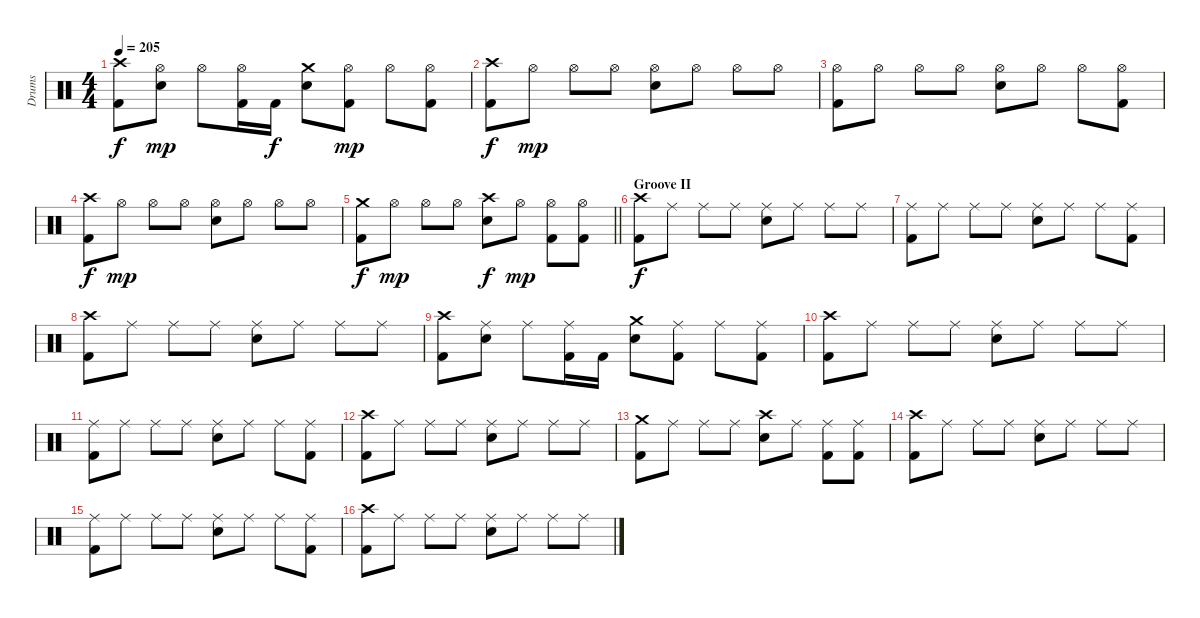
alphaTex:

\track ("Drums" "Drums") {instrument percussion}
\staff {score}
\articulation defaults
\ts (4 4)
\tempo 205
\clef neutral
\ks c
("Crash high (hit)" "Kick (hit) 2").8{dy f} ("Hi-Hat (open)" "Snare (hit) 2").8{dy mp} "Hi-Hat (open)".8 ("Hi-Hat (open)" "Kick (hit) 2").16 "Kick (hit) 2".16{dy f} ("Crash medium (hit)" "Snare (hit) 2").8 ("Hi-Hat (open)" "Kick (hit) 2").8{dy mp} "Hi-Hat (open)".8 ("Hi-Hat (open)" "Kick (hit) 2").8 |
("Crash high (hit)" "Kick (hit) 2").8{dy f} "Hi-Hat (open)".8{dy mp} "Hi-Hat (open)".8 "Hi-Hat (open)".8 ("Hi-Hat (open)" "Snare (hit) 2").8 "Hi-Hat (open)".8 "Hi-Hat (open)".8 "Hi-Hat (open)".8 |
("Hi-Hat (open)" "Kick (hit) 2").8 "Hi-Hat (open)".8 "Hi-Hat (open)".8 "Hi-Hat (open)".8 ("Hi-Hat (open)" "Snare (hit) 2").8 "Hi-Hat (open)".8 "Hi-Hat (open)".8 ("Hi-Hat (open)" "Kick (hit) 2").8 |
("Crash high (hit)" "Kick (hit) 2").8{dy f} "Hi-Hat (open)".8{dy mp} "Hi-Hat (open)".8 "Hi-Hat (open)".8 ("Hi-Hat (open)" "Snare (hit) 2").8 "Hi-Hat (open)".8 "Hi-Hat (open)".8 "Hi-Hat (open)".8 |
\barLineRight lightlight
("Crash medium (hit)" "Kick (hit) 2").8{dy f} "Hi-Hat (open)".8{dy mp} "Hi-Hat (open)".8 "Hi-Hat (open)".8 ("Crash high (hit)" "Snare (hit) 2").8{dy f} "Hi-Hat (open)".8{dy mp} ("Hi-Hat (open)" "Kick (hit) 2").8 ("Hi-Hat (open)" "Kick (hit) 2").8 |
\section ("" "Groove II")
("Crash high (hit)" "Kick (hit) 2").8{dy f} "Ride (middle)".8 "Ride (middle)".8 "Ride (middle)".8 ("Ride (middle)" "Snare (hit) 2").8 "Ride (middle)".8 "Ride (middle)".8 "Ride (middle)".8 |
("Ride (middle)" "Kick (hit) 2").8 "Ride (middle)".8 "Ride (middle)".8 "Ride (middle)".8 ("Ride (middle)" "Snare (hit) 2").8 "Ride (middle)".8 "Ride (middle)".8 ("Ride (middle)" "Kick (hit) 2").8 |
("Crash high (hit)" "Kick (hit) 2").8 "Ride (middle)".8 "Ride (middle)".8 "Ride (middle)".8 ("Ride (middle)" "Snare (hit) 2").8 "Ride (middle)".8 "Ride (middle)".8 "Ride (middle)".8 |
("Crash high (hit)" "Kick (hit) 2").8 ("Ride (middle)" "Snare (hit) 2").8 "Ride (middle)".8 ("Ride (middle)" "Kick (hit) 2").16 "Kick (hit) 2".16 ("Crash medium (hit)" "Snare (hit) 2").8 ("Ride (middle)" "Kick (hit) 2").8 "Ride (middle)".8 ("Ride (middle)" "Kick (hit) 2").8 |
("Crash high (hit)" "Kick (hit) 2").8 "Ride (middle)".8 "Ride (middle)".8 "Ride (middle)".8 ("Ride (middle)" "Snare (hit) 2").8 "Ride (middle)".8 "Ride (middle)".8 "Ride (middle)".8 |
("Ride (middle)" "Kick (hit) 2").8 "Ride (middle)".8 "Ride (middle)".8 "Ride (middle)".8 ("Ride (middle)" "Snare (hit) 2").8 "Ride (middle)".8 "Ride (middle)".8 ("Ride (middle)" "Kick (hit) 2").8 |
("Crash high (hit)" "Kick (hit) 2").8 "Ride (middle)".8 "Ride (middle)".8 "Ride (middle)".8 ("Ride (middle)" "Snare (hit) 2").8 "Ride (middle)".8 "Ride (middle)".8 "Ride (middle)".8 |
("Crash medium (hit)" "Kick (hit) 2").8 "Ride (middle)".8 "Ride (middle)".8 "Ride (middle)".8 ("Crash high (hit)" "Snare (hit) 2").8 "Ride (middle)".8 ("Ride (middle)" "Kick (hit) 2").8 ("Ride (middle)" "Kick (hit) 2").8 |
("Crash high (hit)" "Kick (hit) 2").8 "Ride (middle)".8 "Ride (middle)".8 "Ride (middle)".8 ("Ride (middle)" "Snare (hit) 2").8 "Ride (middle)".8 "Ride (middle)".8 "Ride (middle)".8 |
("Ride (middle)" "Kick (hit) 2").8 "Ride (middle)".8 "Ride (middle)".8 "Ride (middle)".8 ("Ride (middle)" "Snare (hit) 2").8 "Ride (middle)".8 "Ride (middle)".8 ("Ride (middle)" "Kick (hit) 2").8 |
("Crash high (hit)" "Kick (hit) 2").8 "Ride (middle)".8 "Ride (middle)".8 "Ride (middle)".8 ("Ride (middle)" "Snare (hit) 2").8 "Ride (middle)".8 "Ride (middle)".8 "Ride (middle)".8
